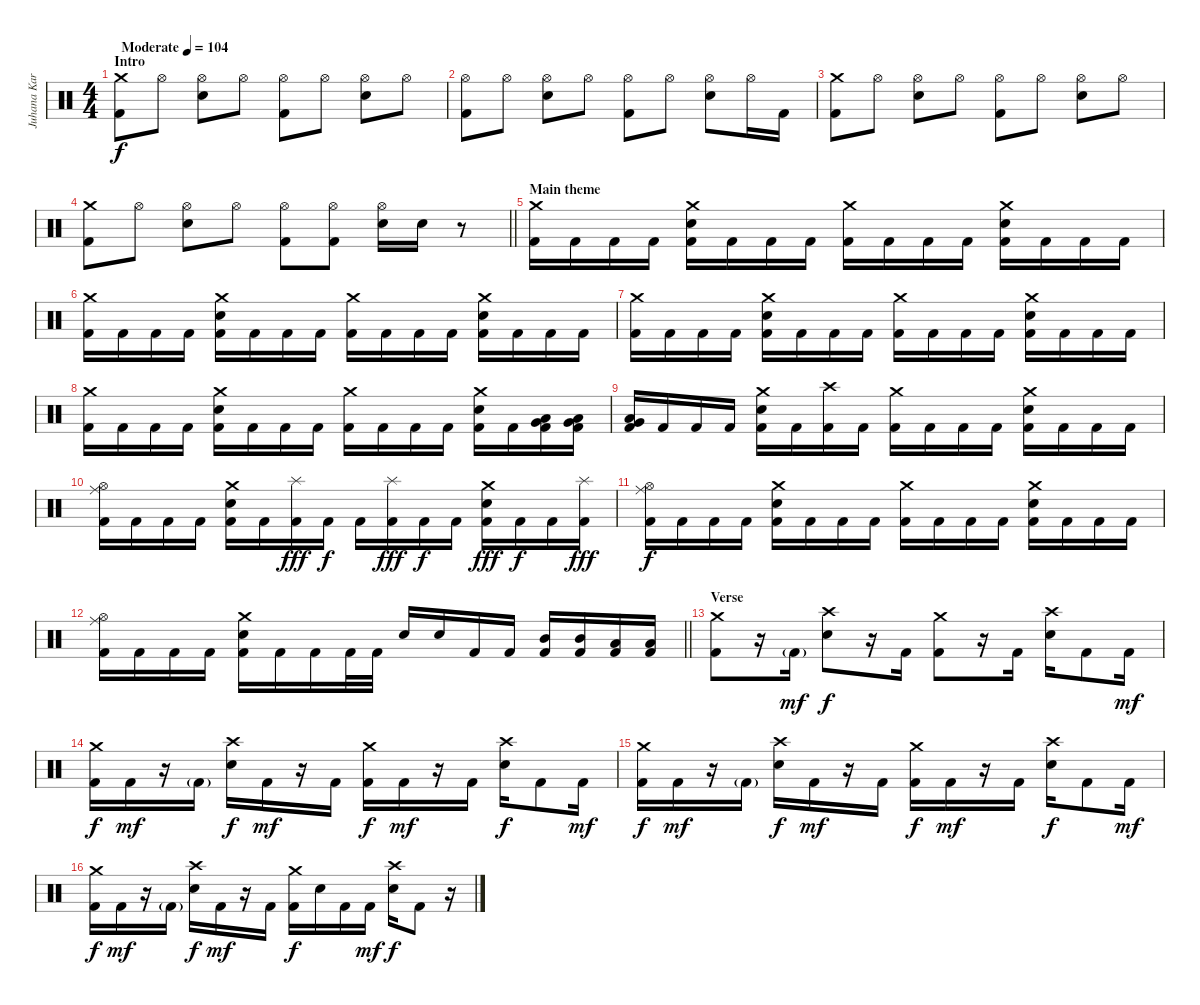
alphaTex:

\track ("Juhana Karlsson" "Juhana Kar") {instrument percussion}
\staff {score}
\articulation defaults
\ts (4 4)
\section ("" "Intro")
\tempo (104 "Moderate")
\clef neutral
\ks c
("Crash medium (hit)" "Kick (hit) 2").8{dy f} "Hi-Hat (open)".8 ("Hi-Hat (open)" "Electric Snare (hit)").8 "Hi-Hat (open)".8 ("Hi-Hat (open)" "Kick (hit) 2").8 "Hi-Hat (open)".8 ("Hi-Hat (open)" "Electric Snare (hit)").8 "Hi-Hat (open)".8 |
("Hi-Hat (open)" "Kick (hit) 2").8 "Hi-Hat (open)".8 ("Hi-Hat (open)" "Electric Snare (hit)").8 "Hi-Hat (open)".8 ("Hi-Hat (open)" "Kick (hit) 2").8 "Hi-Hat (open)".8 ("Hi-Hat (open)" "Electric Snare (hit)").8 "Hi-Hat (open)".16 "Kick (hit) 2".16 |
("Crash medium (hit)" "Kick (hit) 2").8 "Hi-Hat (open)".8 ("Hi-Hat (open)" "Electric Snare (hit)").8 "Hi-Hat (open)".8 ("Hi-Hat (open)" "Kick (hit) 2").8 "Hi-Hat (open)".8 ("Hi-Hat (open)" "Electric Snare (hit)").8 "Hi-Hat (open)".8 |
\barLineRight lightlight
("Crash medium (hit)" "Kick (hit) 2").8 "Hi-Hat (open)".8 ("Hi-Hat (open)" "Electric Snare (hit)").8 "Hi-Hat (open)".8 ("Hi-Hat (open)" "Kick (hit) 2").8 ("Hi-Hat (open)" "Kick (hit) 2").8 ("Hi-Hat (open)" "Electric Snare (hit)").16 "Electric Snare (hit)".16 r.8 |
\section ("" "Main theme")
("Crash medium (hit)" "Kick (hit) 2").16 "Kick (hit) 2".16 "Kick (hit) 2".16 "Kick (hit) 2".16 ("Crash medium (hit)" "Electric Snare (hit)" "Kick (hit) 2").16 "Kick (hit) 2".16 "Kick (hit) 2".16 "Kick (hit) 2".16 ("Crash medium (hit)" "Kick (hit) 2").16 "Kick (hit) 2".16 "Kick (hit) 2".16 "Kick (hit) 2".16 ("Crash medium (hit)" "Electric Snare (hit)" "Kick (hit) 2").16 "Kick (hit) 2".16 "Kick (hit) 2".16 "Kick (hit) 2".16 |
("Crash medium (hit)" "Kick (hit) 2").16 "Kick (hit) 2".16 "Kick (hit) 2".16 "Kick (hit) 2".16 ("Crash medium (hit)" "Electric Snare (hit)" "Kick (hit) 2").16 "Kick (hit) 2".16 "Kick (hit) 2".16 "Kick (hit) 2".16 ("Crash medium (hit)" "Kick (hit) 2").16 "Kick (hit) 2".16 "Kick (hit) 2".16 "Kick (hit) 2".16 ("Crash medium (hit)" "Electric Snare (hit)" "Kick (hit) 2").16 "Kick (hit) 2".16 "Kick (hit) 2".16 "Kick (hit) 2".16 |
("Crash medium (hit)" "Kick (hit) 2").16 "Kick (hit) 2".16 "Kick (hit) 2".16 "Kick (hit) 2".16 ("Crash medium (hit)" "Electric Snare (hit)" "Kick (hit) 2").16 "Kick (hit) 2".16 "Kick (hit) 2".16 "Kick (hit) 2".16 ("Crash medium (hit)" "Kick (hit) 2").16 "Kick (hit) 2".16 "Kick (hit) 2".16 "Kick (hit) 2".16 ("Crash medium (hit)" "Electric Snare (hit)" "Kick (hit) 2").16 "Kick (hit) 2".16 "Kick (hit) 2".16 "Kick (hit) 2".16 |
("Crash medium (hit)" "Kick (hit) 2").16 "Kick (hit) 2".16 "Kick (hit) 2".16 "Kick (hit) 2".16 ("Crash medium (hit)" "Electric Snare (hit)" "Kick (hit) 2").16 "Kick (hit) 2".16 "Kick (hit) 2".16 "Kick (hit) 2".16 ("Crash medium (hit)" "Kick (hit) 2").16 "Kick (hit) 2".16 "Kick (hit) 2".16 "Kick (hit) 2".16 ("Crash medium (hit)" "Electric Snare (hit)" "Kick (hit) 2").16 "Kick (hit) 2".16 ("Low Tom (hit)" "Very Low Tom (hit)" "Kick (hit) 2").16 ("Low Tom (hit)" "Very Low Tom (hit)" "Kick (hit) 2").16 |
("Low Tom (hit)" "Very Low Tom (hit)" "Kick (hit) 2").16 "Kick (hit) 2".16 "Kick (hit) 2".16 "Kick (hit) 2".16 ("Crash medium (hit)" "Electric Snare (hit)" "Kick (hit) 2").16 "Kick (hit) 2".16 ("Crash high (hit)" "Kick (hit) 2").16 "Kick (hit) 2".16 ("Crash medium (hit)" "Kick (hit) 2").16 "Kick (hit) 2".16 "Kick (hit) 2".16 "Kick (hit) 2".16 ("Crash medium (hit)" "Electric Snare (hit)" "Kick (hit) 2").16 "Kick (hit) 2".16 "Kick (hit) 2".16 "Kick (hit) 2".16 |
("Ride (middle)" "Hi-Hat (open)" "Kick (hit) 2").16 "Kick (hit) 2".16 "Kick (hit) 2".16 "Kick (hit) 2".16 ("Crash medium (hit)" "Electric Snare (hit)" "Kick (hit) 2").16 "Kick (hit) 2".16 ("Splash (hit)" "Kick (hit) 2").16{dy fff} "Kick (hit) 2".16{dy f} "Kick (hit) 2".16 ("Splash (hit)" "Kick (hit) 2").16{dy fff} "Kick (hit) 2".16{dy f} "Kick (hit) 2".16 ("Crash medium (hit)" "Electric Snare (hit)" "Kick (hit) 2").16{dy fff} "Kick (hit) 2".16{dy f} "Kick (hit) 2".16 ("Splash (hit)" "Kick (hit) 2").16{dy fff} |
("Ride (middle)" "Hi-Hat (open)" "Kick (hit) 2").16{dy f} "Kick (hit) 2".16 "Kick (hit) 2".16 "Kick (hit) 2".16 ("Crash medium (hit)" "Electric Snare (hit)" "Kick (hit) 2").16 "Kick (hit) 2".16 "Kick (hit) 2".16 "Kick (hit) 2".16 ("Crash medium (hit)" "Kick (hit) 2").16 "Kick (hit) 2".16 "Kick (hit) 2".16 "Kick (hit) 2".16 ("Crash medium (hit)" "Electric Snare (hit)" "Kick (hit) 2").16 "Kick (hit) 2".16 "Kick (hit) 2".16 "Kick (hit) 2".16 |
\barLineRight lightlight
("Ride (middle)" "Hi-Hat (open)" "Kick (hit) 2").16 "Kick (hit) 2".16 "Kick (hit) 2".16 "Kick (hit) 2".16 ("Crash medium (hit)" "Electric Snare (hit)" "Kick (hit) 2").16 "Kick (hit) 2".16 "Kick (hit) 2".16 "Kick (hit) 2".32 "Kick (hit) 2".32 "Electric Snare (hit)".16 "Electric Snare (hit)".16 "Kick (hit) 2".16 "Kick (hit) 2".16 ("Mid Tom (hit)" "Kick (hit) 2").16 ("Mid Tom (hit)" "Kick (hit) 2").16 ("Low Tom (hit)" "Kick (hit) 2").16 ("Low Tom (hit)" "Kick (hit) 2").16 |
\section ("" "Verse")
("Crash medium (hit)" "Kick (hit) 2").8 r.16 "Kick (hit) 2"{g}.16{dy mf} ("Crash high (hit)" "Electric Snare (hit)").8{dy f} r.16 "Kick (hit) 2".16 ("Crash medium (hit)" "Kick (hit) 2").8 r.16 "Kick (hit) 2".16 ("Crash high (hit)" "Electric Snare (hit)").16 "Kick (hit) 2".8 "Kick (hit) 2".16{dy mf} |
("Crash medium (hit)" "Kick (hit) 2").16{dy f} "Kick (hit) 2".16{dy mf} r.16 "Kick (hit) 2"{g}.16 ("Crash high (hit)" "Electric Snare (hit)").16{dy f} "Kick (hit) 2".16{dy mf} r.16 "Kick (hit) 2".16 ("Crash medium (hit)" "Kick (hit) 2").16{dy f} "Kick (hit) 2".16{dy mf} r.16 "Kick (hit) 2".16 ("Crash high (hit)" "Electric Snare (hit)").16{dy f} "Kick (hit) 2".8 "Kick (hit) 2".16{dy mf} |
("Crash medium (hit)" "Kick (hit) 2").16{dy f} "Kick (hit) 2".16{dy mf} r.16 "Kick (hit) 2"{g}.16 ("Crash high (hit)" "Electric Snare (hit)").16{dy f} "Kick (hit) 2".16{dy mf} r.16 "Kick (hit) 2".16 ("Crash medium (hit)" "Kick (hit) 2").16{dy f} "Kick (hit) 2".16{dy mf} r.16 "Kick (hit) 2".16 ("Crash high (hit)" "Electric Snare (hit)").16{dy f} "Kick (hit) 2".8 "Kick (hit) 2".16{dy mf} |
("Crash medium (hit)" "Kick (hit) 2").16{dy f} "Kick (hit) 2".16{dy mf} r.16 "Kick (hit) 2"{g}.16 ("Crash high (hit)" "Electric Snare (hit)").16{dy f} "Kick (hit) 2".16{dy mf} r.16 "Kick (hit) 2".16 ("Crash medium (hit)" "Kick (hit) 2").16{dy f} "Electric Snare (hit)".16 "Kick (hit) 2".16 "Kick (hit) 2".16{dy mf} ("Crash high (hit)" "Electric Snare (hit)").16{dy f} "Kick (hit) 2".8 r.16
